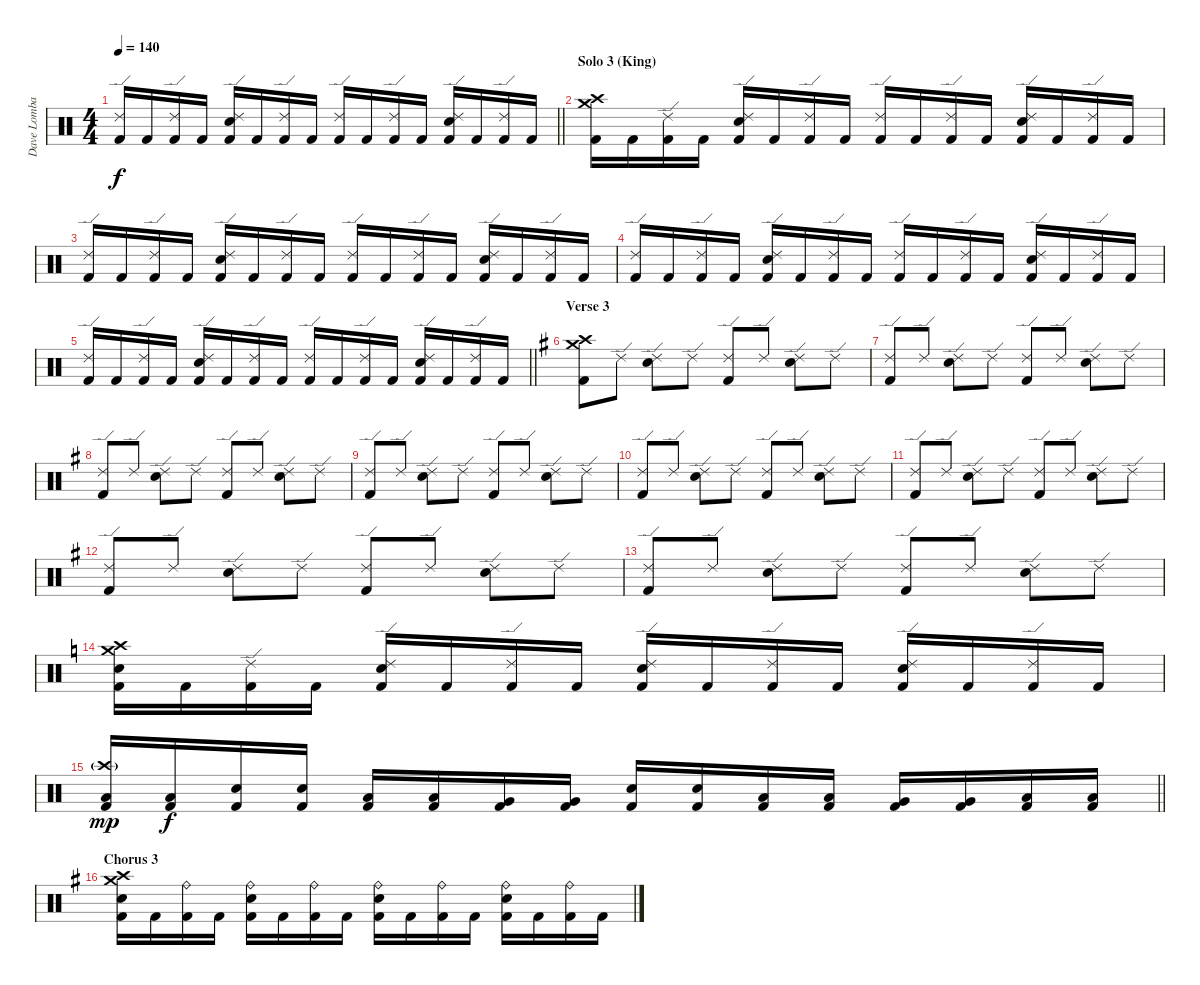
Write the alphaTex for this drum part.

\track ("Dave Lombardo" "Dave Lomba") {instrument percussion}
\staff {score}
\articulation defaults
\ts (4 4)
\tempo 140
\clef neutral
\barLineRight lightlight
\ks c
("Ride (edge) 2" "Kick (hit) 2").16{dy f} "Kick (hit) 2".16 ("Ride (edge) 2" "Kick (hit) 2").16 "Kick (hit) 2".16 ("Ride (edge) 2" "Electric Snare (hit)" "Kick (hit) 2").16 "Kick (hit) 2".16 ("Ride (edge) 2" "Kick (hit) 2").16 "Kick (hit) 2".16 ("Ride (edge) 2" "Kick (hit) 2").16 "Kick (hit) 2".16 ("Ride (edge) 2" "Kick (hit) 2").16 "Kick (hit) 2".16 ("Ride (edge) 2" "Electric Snare (hit)" "Kick (hit) 2").16 "Kick (hit) 2".16 ("Ride (edge) 2" "Kick (hit) 2").16 "Kick (hit) 2".16 |
\section ("" "Solo 3 (King)")
("Crash medium (hit)" "Crash high (hit)" "Kick (hit) 2").16 "Kick (hit) 2".16 ("Ride (edge) 2" "Kick (hit) 2").16 "Kick (hit) 2".16 ("Ride (edge) 2" "Electric Snare (hit)" "Kick (hit) 2").16 "Kick (hit) 2".16 ("Ride (edge) 2" "Kick (hit) 2").16 "Kick (hit) 2".16 ("Ride (edge) 2" "Kick (hit) 2").16 "Kick (hit) 2".16 ("Ride (edge) 2" "Kick (hit) 2").16 "Kick (hit) 2".16 ("Ride (edge) 2" "Electric Snare (hit)" "Kick (hit) 2").16 "Kick (hit) 2".16 ("Ride (edge) 2" "Kick (hit) 2").16 "Kick (hit) 2".16 |
("Ride (edge) 2" "Kick (hit) 2").16 "Kick (hit) 2".16 ("Ride (edge) 2" "Kick (hit) 2").16 "Kick (hit) 2".16 ("Ride (edge) 2" "Electric Snare (hit)" "Kick (hit) 2").16 "Kick (hit) 2".16 ("Ride (edge) 2" "Kick (hit) 2").16 "Kick (hit) 2".16 ("Ride (edge) 2" "Kick (hit) 2").16 "Kick (hit) 2".16 ("Ride (edge) 2" "Kick (hit) 2").16 "Kick (hit) 2".16 ("Ride (edge) 2" "Electric Snare (hit)" "Kick (hit) 2").16 "Kick (hit) 2".16 ("Ride (edge) 2" "Kick (hit) 2").16 "Kick (hit) 2".16 |
("Ride (edge) 2" "Kick (hit) 2").16 "Kick (hit) 2".16 ("Ride (edge) 2" "Kick (hit) 2").16 "Kick (hit) 2".16 ("Ride (edge) 2" "Electric Snare (hit)" "Kick (hit) 2").16 "Kick (hit) 2".16 ("Ride (edge) 2" "Kick (hit) 2").16 "Kick (hit) 2".16 ("Ride (edge) 2" "Kick (hit) 2").16 "Kick (hit) 2".16 ("Ride (edge) 2" "Kick (hit) 2").16 "Kick (hit) 2".16 ("Ride (edge) 2" "Electric Snare (hit)" "Kick (hit) 2").16 "Kick (hit) 2".16 ("Ride (edge) 2" "Kick (hit) 2").16 "Kick (hit) 2".16 |
\barLineRight lightlight
("Ride (edge) 2" "Kick (hit) 2").16 "Kick (hit) 2".16 ("Ride (edge) 2" "Kick (hit) 2").16 "Kick (hit) 2".16 ("Ride (edge) 2" "Electric Snare (hit)" "Kick (hit) 2").16 "Kick (hit) 2".16 ("Ride (edge) 2" "Kick (hit) 2").16 "Kick (hit) 2".16 ("Ride (edge) 2" "Kick (hit) 2").16 "Kick (hit) 2".16 ("Ride (edge) 2" "Kick (hit) 2").16 "Kick (hit) 2".16 ("Ride (edge) 2" "Electric Snare (hit)" "Kick (hit) 2").16 "Kick (hit) 2".16 ("Ride (edge) 2" "Kick (hit) 2").16 "Kick (hit) 2".16 |
\section ("" "Verse 3")
\ks g
("Crash high (hit)" "Crash medium (hit)" "Kick (hit) 2").8 "Ride (edge) 2".8 ("Ride (edge) 2" "Electric Snare (hit)").8 "Ride (edge) 2".8 ("Ride (edge) 2" "Kick (hit) 2").8 "Ride (edge) 2".8 ("Ride (edge) 2" "Electric Snare (hit)").8 "Ride (edge) 2".8 |
("Ride (edge) 2" "Kick (hit) 2").8 "Ride (edge) 2".8 ("Ride (edge) 2" "Electric Snare (hit)").8 "Ride (edge) 2".8 ("Ride (edge) 2" "Kick (hit) 2").8 "Ride (edge) 2".8 ("Ride (edge) 2" "Electric Snare (hit)").8 "Ride (edge) 2".8 |
("Ride (edge) 2" "Kick (hit) 2").8 "Ride (edge) 2".8 ("Ride (edge) 2" "Electric Snare (hit)").8 "Ride (edge) 2".8 ("Ride (edge) 2" "Kick (hit) 2").8 "Ride (edge) 2".8 ("Ride (edge) 2" "Electric Snare (hit)").8 "Ride (edge) 2".8 |
("Ride (edge) 2" "Kick (hit) 2").8 "Ride (edge) 2".8 ("Ride (edge) 2" "Electric Snare (hit)").8 "Ride (edge) 2".8 ("Ride (edge) 2" "Kick (hit) 2").8 "Ride (edge) 2".8 ("Ride (edge) 2" "Electric Snare (hit)").8 "Ride (edge) 2".8 |
("Ride (edge) 2" "Kick (hit) 2").8 "Ride (edge) 2".8 ("Ride (edge) 2" "Electric Snare (hit)").8 "Ride (edge) 2".8 ("Ride (edge) 2" "Kick (hit) 2").8 "Ride (edge) 2".8 ("Ride (edge) 2" "Electric Snare (hit)").8 "Ride (edge) 2".8 |
("Ride (edge) 2" "Kick (hit) 2").8 "Ride (edge) 2".8 ("Ride (edge) 2" "Electric Snare (hit)").8 "Ride (edge) 2".8 ("Ride (edge) 2" "Kick (hit) 2").8 "Ride (edge) 2".8 ("Ride (edge) 2" "Electric Snare (hit)").8 "Ride (edge) 2".8 |
("Ride (edge) 2" "Kick (hit) 2").8 "Ride (edge) 2".8 ("Ride (edge) 2" "Electric Snare (hit)").8 "Ride (edge) 2".8 ("Ride (edge) 2" "Kick (hit) 2").8 "Ride (edge) 2".8 ("Ride (edge) 2" "Electric Snare (hit)").8 "Ride (edge) 2".8 |
("Ride (edge) 2" "Kick (hit) 2").8 "Ride (edge) 2".8 ("Ride (edge) 2" "Electric Snare (hit)").8 "Ride (edge) 2".8 ("Ride (edge) 2" "Kick (hit) 2").8 "Ride (edge) 2".8 ("Ride (edge) 2" "Electric Snare (hit)").8 "Ride (edge) 2".8 |
\ks c
("Crash medium (hit)" "Crash high (hit)" "Electric Snare (hit)" "Kick (hit) 2").16 "Kick (hit) 2".16 ("Ride (edge) 2" "Kick (hit) 2").16 "Kick (hit) 2".16 ("Ride (edge) 2" "Electric Snare (hit)" "Kick (hit) 2").16 "Kick (hit) 2".16 ("Ride (edge) 2" "Kick (hit) 2").16 "Kick (hit) 2".16 ("Ride (edge) 2" "Electric Snare (hit)" "Kick (hit) 2").16 "Kick (hit) 2".16 ("Ride (edge) 2" "Kick (hit) 2").16 "Kick (hit) 2".16 ("Ride (edge) 2" "Electric Snare (hit)" "Kick (hit) 2").16 "Kick (hit) 2".16 ("Ride (edge) 2" "Kick (hit) 2").16 "Kick (hit) 2".16 |
\barLineRight lightlight
("Crash high (hit)"{g} "Low Floor Tom (hit)" "Kick (hit) 2").16{dy mp} ("Low Floor Tom (hit)" "Kick (hit) 2").16{dy f} ("Electric Snare (hit)" "Kick (hit) 2").16 ("Electric Snare (hit)" "Kick (hit) 2").16 ("Low Tom (hit)" "Kick (hit) 2").16 ("Low Tom (hit)" "Kick (hit) 2").16 ("Very Low Tom (hit)" "Kick (hit) 2").16 ("Very Low Tom (hit)" "Kick (hit) 2").16 ("Electric Snare (hit)" "Kick (hit) 2").16 ("Electric Snare (hit)" "Kick (hit) 2").16 ("Low Tom (hit)" "Kick (hit) 2").16 ("Low Tom (hit)" "Kick (hit) 2").16 ("Very Low Tom (hit)" "Kick (hit) 2").16 ("Very Low Tom (hit)" "Kick (hit) 2").16 ("Low Floor Tom (hit)" "Kick (hit) 2").16 ("Low Floor Tom (hit)" "Kick (hit) 2").16 |
\section ("" "Chorus 3")
\ks g
("Crash high (hit)" "Crash medium (hit)" "Electric Snare (hit)" "Kick (hit) 2").16 "Kick (hit) 2".16 ("Ride (bell)" "Kick (hit) 2").16 "Kick (hit) 2".16 ("Ride (bell)" "Electric Snare (hit)" "Kick (hit) 2").16 "Kick (hit) 2".16 ("Ride (bell)" "Kick (hit) 2").16 "Kick (hit) 2".16 ("Ride (bell)" "Electric Snare (hit)" "Kick (hit) 2").16 "Kick (hit) 2".16 ("Ride (bell)" "Kick (hit) 2").16 "Kick (hit) 2".16 ("Ride (bell)" "Electric Snare (hit)" "Kick (hit) 2").16 "Kick (hit) 2".16 ("Ride (bell)" "Kick (hit) 2").16 "Kick (hit) 2".16
